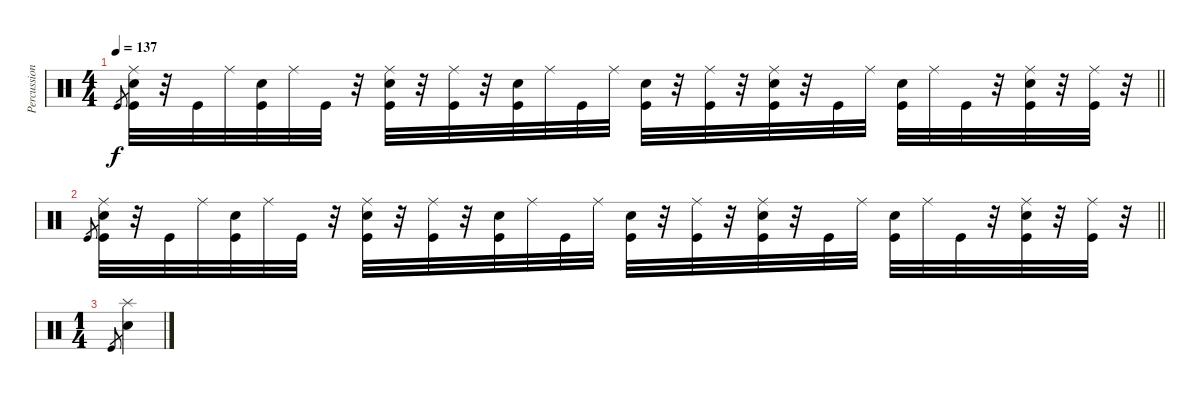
\track ("Percussion" "Percussion") {instrument percussion}
\staff {score}
\articulation defaults
\ts (4 4)
\tempo 137
\clef neutral
\barLineRight lightlight
\ks c "Kick (hit)".8{gr dy f}
("Kick (hit)" "Snare (hit) 2" "Ride (middle)").32 r.32 "Kick (hit)".32 "Ride (middle)".32 ("Kick (hit)" "Snare (hit) 2").32 "Ride (middle)".32 "Kick (hit)".32 r.32 ("Kick (hit)" "Snare (hit) 2" "Ride (middle)").32 r.32 ("Kick (hit)" "Ride (middle)").32 r.32 ("Kick (hit)" "Snare (hit) 2").32 "Ride (middle)".32 "Kick (hit)".32 "Ride (middle)".32 ("Kick (hit)" "Snare (hit) 2").32 r.32 ("Kick (hit)" "Ride (middle)").32 r.32 ("Kick (hit)" "Snare (hit) 2" "Ride (middle)").32 r.32 "Kick (hit)".32 "Ride (middle)".32 ("Kick (hit)" "Snare (hit) 2").32 "Ride (middle)".32 "Kick (hit)".32 r.32 ("Kick (hit)" "Snare (hit) 2" "Ride (middle)").32 r.32 ("Kick (hit)" "Ride (middle)").32 r.32 |
\barLineRight lightlight "Kick (hit)".8{gr}
("Kick (hit)" "Snare (hit) 2" "Ride (middle)").32 r.32 "Kick (hit)".32 "Ride (middle)".32 ("Kick (hit)" "Snare (hit) 2").32 "Ride (middle)".32 "Kick (hit)".32 r.32 ("Kick (hit)" "Snare (hit) 2" "Ride (middle)").32 r.32 ("Kick (hit)" "Ride (middle)").32 r.32 ("Kick (hit)" "Snare (hit) 2").32 "Ride (middle)".32 "Kick (hit)".32 "Ride (middle)".32 ("Kick (hit)" "Snare (hit) 2").32 r.32 ("Kick (hit)" "Ride (middle)").32 r.32 ("Kick (hit)" "Snare (hit) 2" "Ride (middle)").32 r.32 "Kick (hit)".32 "Ride (middle)".32 ("Kick (hit)" "Snare (hit) 2").32 "Ride (middle)".32 "Kick (hit)".32 r.32 ("Kick (hit)" "Snare (hit) 2" "Ride (middle)").32 r.32 ("Kick (hit)" "Ride (middle)").32 r.32 |
\ts (1 4)
"Kick (hit)".8{gr} ("Splash (hit)" "Snare (hit) 2").4
